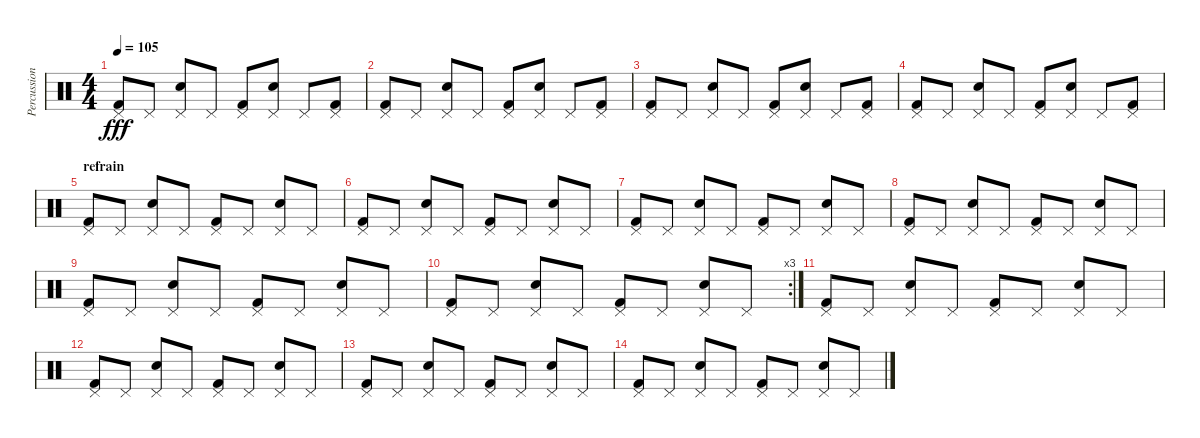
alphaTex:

\track ("Percussions" "Percussion") {instrument percussion}
\staff {score}
\articulation defaults
\ts (4 4)
\tempo 105
\clef neutral
\ks c
("Pedal Hi-Hat (hit)" "Kick (hit) 2").8{dy fff} "Pedal Hi-Hat (hit)".8 ("Pedal Hi-Hat (hit)" "Electric Snare (hit)").8 "Pedal Hi-Hat (hit)".8 ("Pedal Hi-Hat (hit)" "Kick (hit) 2").8 ("Pedal Hi-Hat (hit)" "Electric Snare (hit)").8 "Pedal Hi-Hat (hit)".8 ("Pedal Hi-Hat (hit)" "Kick (hit) 2").8 |
("Pedal Hi-Hat (hit)" "Kick (hit) 2").8 "Pedal Hi-Hat (hit)".8 ("Pedal Hi-Hat (hit)" "Electric Snare (hit)").8 "Pedal Hi-Hat (hit)".8 ("Pedal Hi-Hat (hit)" "Kick (hit) 2").8 ("Pedal Hi-Hat (hit)" "Electric Snare (hit)").8 "Pedal Hi-Hat (hit)".8 ("Pedal Hi-Hat (hit)" "Kick (hit) 2").8 |
("Pedal Hi-Hat (hit)" "Kick (hit) 2").8 "Pedal Hi-Hat (hit)".8 ("Pedal Hi-Hat (hit)" "Electric Snare (hit)").8 "Pedal Hi-Hat (hit)".8 ("Pedal Hi-Hat (hit)" "Kick (hit) 2").8 ("Pedal Hi-Hat (hit)" "Electric Snare (hit)").8 "Pedal Hi-Hat (hit)".8 ("Pedal Hi-Hat (hit)" "Kick (hit) 2").8 |
("Pedal Hi-Hat (hit)" "Kick (hit) 2").8 "Pedal Hi-Hat (hit)".8 ("Pedal Hi-Hat (hit)" "Electric Snare (hit)").8 "Pedal Hi-Hat (hit)".8 ("Pedal Hi-Hat (hit)" "Kick (hit) 2").8 ("Pedal Hi-Hat (hit)" "Electric Snare (hit)").8 "Pedal Hi-Hat (hit)".8 ("Pedal Hi-Hat (hit)" "Kick (hit) 2").8 |
\section ("" "refrain")
("Pedal Hi-Hat (hit)" "Kick (hit) 2").8 "Pedal Hi-Hat (hit)".8 ("Pedal Hi-Hat (hit)" "Electric Snare (hit)").8 "Pedal Hi-Hat (hit)".8 ("Pedal Hi-Hat (hit)" "Kick (hit) 2").8 "Pedal Hi-Hat (hit)".8 ("Pedal Hi-Hat (hit)" "Electric Snare (hit)").8 "Pedal Hi-Hat (hit)".8 |
("Pedal Hi-Hat (hit)" "Kick (hit) 2").8 "Pedal Hi-Hat (hit)".8 ("Pedal Hi-Hat (hit)" "Electric Snare (hit)").8 "Pedal Hi-Hat (hit)".8 ("Pedal Hi-Hat (hit)" "Kick (hit) 2").8 "Pedal Hi-Hat (hit)".8 ("Pedal Hi-Hat (hit)" "Electric Snare (hit)").8 "Pedal Hi-Hat (hit)".8 |
("Pedal Hi-Hat (hit)" "Kick (hit) 2").8 "Pedal Hi-Hat (hit)".8 ("Pedal Hi-Hat (hit)" "Electric Snare (hit)").8 "Pedal Hi-Hat (hit)".8 ("Pedal Hi-Hat (hit)" "Kick (hit) 2").8 "Pedal Hi-Hat (hit)".8 ("Pedal Hi-Hat (hit)" "Electric Snare (hit)").8 "Pedal Hi-Hat (hit)".8 |
("Pedal Hi-Hat (hit)" "Kick (hit) 2").8 "Pedal Hi-Hat (hit)".8 ("Pedal Hi-Hat (hit)" "Electric Snare (hit)").8 "Pedal Hi-Hat (hit)".8 ("Pedal Hi-Hat (hit)" "Kick (hit) 2").8 "Pedal Hi-Hat (hit)".8 ("Pedal Hi-Hat (hit)" "Electric Snare (hit)").8 "Pedal Hi-Hat (hit)".8 |
("Pedal Hi-Hat (hit)" "Kick (hit) 2").8 "Pedal Hi-Hat (hit)".8 ("Pedal Hi-Hat (hit)" "Electric Snare (hit)").8 "Pedal Hi-Hat (hit)".8 ("Pedal Hi-Hat (hit)" "Kick (hit) 2").8 "Pedal Hi-Hat (hit)".8 ("Pedal Hi-Hat (hit)" "Electric Snare (hit)").8 "Pedal Hi-Hat (hit)".8 |
\rc 3
("Pedal Hi-Hat (hit)" "Kick (hit) 2").8 "Pedal Hi-Hat (hit)".8 ("Pedal Hi-Hat (hit)" "Electric Snare (hit)").8 "Pedal Hi-Hat (hit)".8 ("Pedal Hi-Hat (hit)" "Kick (hit) 2").8 "Pedal Hi-Hat (hit)".8 ("Pedal Hi-Hat (hit)" "Electric Snare (hit)").8 "Pedal Hi-Hat (hit)".8 |
("Pedal Hi-Hat (hit)" "Kick (hit) 2").8 "Pedal Hi-Hat (hit)".8 ("Pedal Hi-Hat (hit)" "Electric Snare (hit)").8 "Pedal Hi-Hat (hit)".8 ("Pedal Hi-Hat (hit)" "Kick (hit) 2").8 "Pedal Hi-Hat (hit)".8 ("Pedal Hi-Hat (hit)" "Electric Snare (hit)").8 "Pedal Hi-Hat (hit)".8 |
("Pedal Hi-Hat (hit)" "Kick (hit) 2").8 "Pedal Hi-Hat (hit)".8 ("Pedal Hi-Hat (hit)" "Electric Snare (hit)").8 "Pedal Hi-Hat (hit)".8 ("Pedal Hi-Hat (hit)" "Kick (hit) 2").8 "Pedal Hi-Hat (hit)".8 ("Pedal Hi-Hat (hit)" "Electric Snare (hit)").8 "Pedal Hi-Hat (hit)".8{volume 0} |
("Pedal Hi-Hat (hit)" "Kick (hit) 2").8 "Pedal Hi-Hat (hit)".8 ("Pedal Hi-Hat (hit)" "Electric Snare (hit)").8 "Pedal Hi-Hat (hit)".8 ("Pedal Hi-Hat (hit)" "Kick (hit) 2").8 "Pedal Hi-Hat (hit)".8 ("Pedal Hi-Hat (hit)" "Electric Snare (hit)").8 "Pedal Hi-Hat (hit)".8 |
("Pedal Hi-Hat (hit)" "Kick (hit) 2").8 "Pedal Hi-Hat (hit)".8 ("Pedal Hi-Hat (hit)" "Electric Snare (hit)").8 "Pedal Hi-Hat (hit)".8 ("Pedal Hi-Hat (hit)" "Kick (hit) 2").8 "Pedal Hi-Hat (hit)".8 ("Pedal Hi-Hat (hit)" "Electric Snare (hit)").8 "Pedal Hi-Hat (hit)".8
